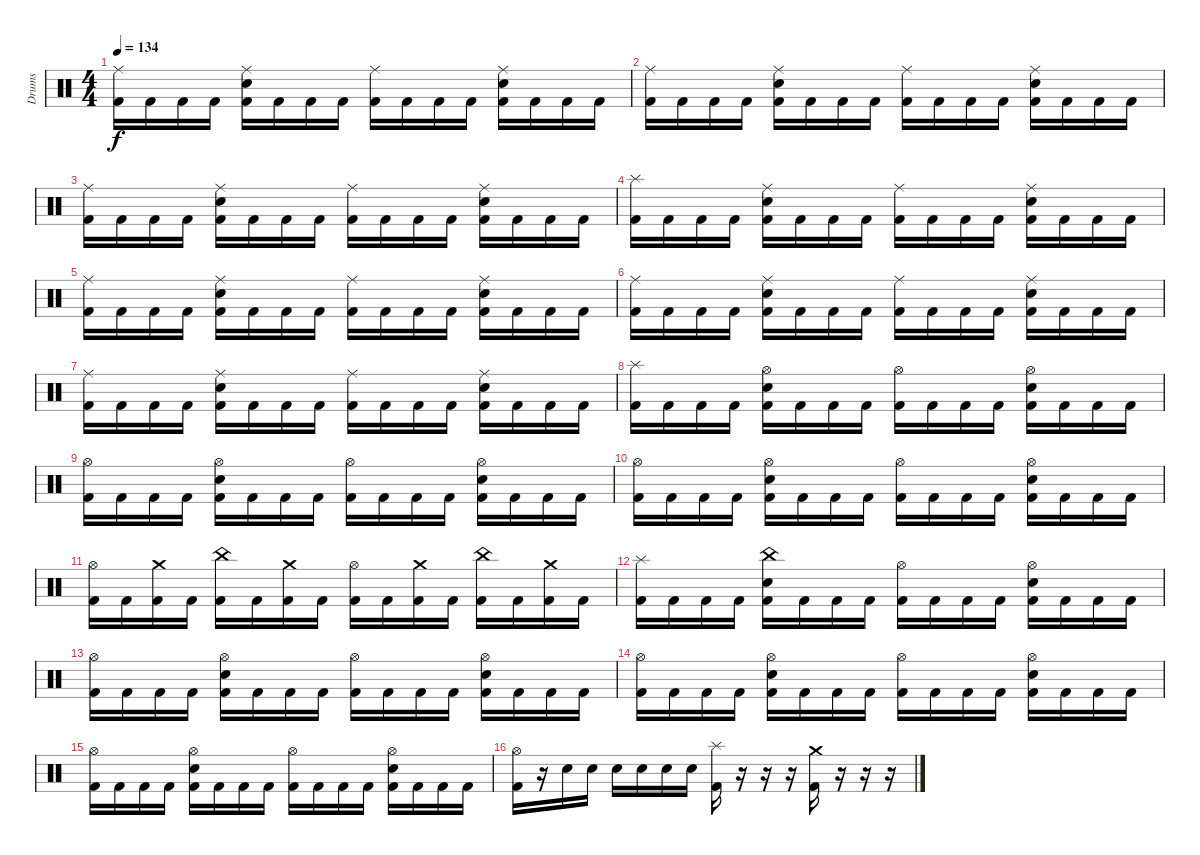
\track ("Drums" "Drums") {instrument percussion}
\staff {score}
\articulation defaults
\ts (4 4)
\tempo 134
\clef neutral
\ks c
("Ride (middle)" "Kick (hit) 2").16{dy f} "Kick (hit) 2".16 "Kick (hit) 2".16 "Kick (hit) 2".16 ("Ride (middle)" "Snare (hit) 2" "Kick (hit) 2").16 "Kick (hit) 2".16 "Kick (hit) 2".16 "Kick (hit) 2".16 ("Ride (middle)" "Kick (hit) 2").16 "Kick (hit) 2".16 "Kick (hit) 2".16 "Kick (hit) 2".16 ("Ride (middle)" "Snare (hit) 2" "Kick (hit) 2").16 "Kick (hit) 2".16 "Kick (hit) 2".16 "Kick (hit) 2".16 |
("Ride (middle)" "Kick (hit) 2").16 "Kick (hit) 2".16 "Kick (hit) 2".16 "Kick (hit) 2".16 ("Ride (middle)" "Snare (hit) 2" "Kick (hit) 2").16 "Kick (hit) 2".16 "Kick (hit) 2".16 "Kick (hit) 2".16 ("Ride (middle)" "Kick (hit) 2").16 "Kick (hit) 2".16 "Kick (hit) 2".16 "Kick (hit) 2".16 ("Ride (middle)" "Snare (hit) 2" "Kick (hit) 2").16 "Kick (hit) 2".16 "Kick (hit) 2".16 "Kick (hit) 2".16 |
("Ride (middle)" "Kick (hit) 2").16 "Kick (hit) 2".16 "Kick (hit) 2".16 "Kick (hit) 2".16 ("Ride (middle)" "Snare (hit) 2" "Kick (hit) 2").16 "Kick (hit) 2".16 "Kick (hit) 2".16 "Kick (hit) 2".16 ("Ride (middle)" "Kick (hit) 2").16 "Kick (hit) 2".16 "Kick (hit) 2".16 "Kick (hit) 2".16 ("Ride (middle)" "Snare (hit) 2" "Kick (hit) 2").16 "Kick (hit) 2".16 "Kick (hit) 2".16 "Kick (hit) 2".16 |
("Splash (hit)" "Kick (hit) 2").16 "Kick (hit) 2".16 "Kick (hit) 2".16 "Kick (hit) 2".16 ("Ride (middle)" "Snare (hit) 2" "Kick (hit) 2").16 "Kick (hit) 2".16 "Kick (hit) 2".16 "Kick (hit) 2".16 ("Ride (middle)" "Kick (hit) 2").16 "Kick (hit) 2".16 "Kick (hit) 2".16 "Kick (hit) 2".16 ("Ride (middle)" "Snare (hit) 2" "Kick (hit) 2").16 "Kick (hit) 2".16 "Kick (hit) 2".16 "Kick (hit) 2".16 |
("Ride (middle)" "Kick (hit) 2").16 "Kick (hit) 2".16 "Kick (hit) 2".16 "Kick (hit) 2".16 ("Ride (middle)" "Snare (hit) 2" "Kick (hit) 2").16 "Kick (hit) 2".16 "Kick (hit) 2".16 "Kick (hit) 2".16 ("Ride (middle)" "Kick (hit) 2").16 "Kick (hit) 2".16 "Kick (hit) 2".16 "Kick (hit) 2".16 ("Ride (middle)" "Snare (hit) 2" "Kick (hit) 2").16 "Kick (hit) 2".16 "Kick (hit) 2".16 "Kick (hit) 2".16 |
("Ride (middle)" "Kick (hit) 2").16 "Kick (hit) 2".16 "Kick (hit) 2".16 "Kick (hit) 2".16 ("Ride (middle)" "Snare (hit) 2" "Kick (hit) 2").16 "Kick (hit) 2".16 "Kick (hit) 2".16 "Kick (hit) 2".16 ("Ride (middle)" "Kick (hit) 2").16 "Kick (hit) 2".16 "Kick (hit) 2".16 "Kick (hit) 2".16 ("Ride (middle)" "Snare (hit) 2" "Kick (hit) 2").16 "Kick (hit) 2".16 "Kick (hit) 2".16 "Kick (hit) 2".16 |
("Ride (middle)" "Kick (hit) 2").16 "Kick (hit) 2".16 "Kick (hit) 2".16 "Kick (hit) 2".16 ("Ride (middle)" "Snare (hit) 2" "Kick (hit) 2").16 "Kick (hit) 2".16 "Kick (hit) 2".16 "Kick (hit) 2".16 ("Ride (middle)" "Kick (hit) 2").16 "Kick (hit) 2".16 "Kick (hit) 2".16 "Kick (hit) 2".16 ("Ride (middle)" "Snare (hit) 2" "Kick (hit) 2").16 "Kick (hit) 2".16 "Kick (hit) 2".16 "Kick (hit) 2".16 |
("Splash (hit)" "Kick (hit) 2").16 "Kick (hit) 2".16 "Kick (hit) 2".16 "Kick (hit) 2".16 ("Hi-Hat (open)" "Snare (hit) 2" "Kick (hit) 2").16 "Kick (hit) 2".16 "Kick (hit) 2".16 "Kick (hit) 2".16 ("Hi-Hat (open)" "Kick (hit) 2").16 "Kick (hit) 2".16 "Kick (hit) 2".16 "Kick (hit) 2".16 ("Hi-Hat (open)" "Snare (hit) 2" "Kick (hit) 2").16 "Kick (hit) 2".16 "Kick (hit) 2".16 "Kick (hit) 2".16 |
("Hi-Hat (open)" "Kick (hit) 2").16 "Kick (hit) 2".16 "Kick (hit) 2".16 "Kick (hit) 2".16 ("Hi-Hat (open)" "Snare (hit) 2" "Kick (hit) 2").16 "Kick (hit) 2".16 "Kick (hit) 2".16 "Kick (hit) 2".16 ("Hi-Hat (open)" "Kick (hit) 2").16 "Kick (hit) 2".16 "Kick (hit) 2".16 "Kick (hit) 2".16 ("Hi-Hat (open)" "Snare (hit) 2" "Kick (hit) 2").16 "Kick (hit) 2".16 "Kick (hit) 2".16 "Kick (hit) 2".16 |
("Hi-Hat (open)" "Kick (hit) 2").16 "Kick (hit) 2".16 "Kick (hit) 2".16 "Kick (hit) 2".16 ("Hi-Hat (open)" "Snare (hit) 2" "Kick (hit) 2").16 "Kick (hit) 2".16 "Kick (hit) 2".16 "Kick (hit) 2".16 ("Hi-Hat (open)" "Kick (hit) 2").16 "Kick (hit) 2".16 "Kick (hit) 2".16 "Kick (hit) 2".16 ("Hi-Hat (open)" "Snare (hit) 2" "Kick (hit) 2").16 "Kick (hit) 2".16 "Kick (hit) 2".16 "Kick (hit) 2".16 |
("Hi-Hat (open)" "Kick (hit) 2").16 "Kick (hit) 2".16 ("Crash medium (hit)" "Kick (hit) 2").16 "Kick (hit) 2".16 ("China (hit)" "Kick (hit) 2").16 "Kick (hit) 2".16 ("Crash medium (hit)" "Kick (hit) 2").16 "Kick (hit) 2".16 ("Hi-Hat (open)" "Kick (hit) 2").16 "Kick (hit) 2".16 ("Crash medium (hit)" "Kick (hit) 2").16 "Kick (hit) 2".16 ("China (hit)" "Kick (hit) 2").16 "Kick (hit) 2".16 ("Crash medium (hit)" "Kick (hit) 2").16 "Kick (hit) 2".16 |
("Splash (hit)" "Kick (hit) 2").16 "Kick (hit) 2".16 "Kick (hit) 2".16 "Kick (hit) 2".16 ("China (hit)" "Snare (hit) 2" "Kick (hit) 2").16 "Kick (hit) 2".16 "Kick (hit) 2".16 "Kick (hit) 2".16 ("Hi-Hat (open)" "Kick (hit) 2").16 "Kick (hit) 2".16 "Kick (hit) 2".16 "Kick (hit) 2".16 ("Hi-Hat (open)" "Snare (hit) 2" "Kick (hit) 2").16 "Kick (hit) 2".16 "Kick (hit) 2".16 "Kick (hit) 2".16 |
("Hi-Hat (open)" "Kick (hit) 2").16 "Kick (hit) 2".16 "Kick (hit) 2".16 "Kick (hit) 2".16 ("Hi-Hat (open)" "Snare (hit) 2" "Kick (hit) 2").16 "Kick (hit) 2".16 "Kick (hit) 2".16 "Kick (hit) 2".16 ("Hi-Hat (open)" "Kick (hit) 2").16 "Kick (hit) 2".16 "Kick (hit) 2".16 "Kick (hit) 2".16 ("Hi-Hat (open)" "Snare (hit) 2" "Kick (hit) 2").16 "Kick (hit) 2".16 "Kick (hit) 2".16 "Kick (hit) 2".16 |
("Hi-Hat (open)" "Kick (hit) 2").16 "Kick (hit) 2".16 "Kick (hit) 2".16 "Kick (hit) 2".16 ("Hi-Hat (open)" "Snare (hit) 2" "Kick (hit) 2").16 "Kick (hit) 2".16 "Kick (hit) 2".16 "Kick (hit) 2".16 ("Hi-Hat (open)" "Kick (hit) 2").16 "Kick (hit) 2".16 "Kick (hit) 2".16 "Kick (hit) 2".16 ("Hi-Hat (open)" "Snare (hit) 2" "Kick (hit) 2").16 "Kick (hit) 2".16 "Kick (hit) 2".16 "Kick (hit) 2".16 |
("Hi-Hat (open)" "Kick (hit) 2").16 "Kick (hit) 2".16 "Kick (hit) 2".16 "Kick (hit) 2".16 ("Hi-Hat (open)" "Snare (hit) 2" "Kick (hit) 2").16 "Kick (hit) 2".16 "Kick (hit) 2".16 "Kick (hit) 2".16 ("Hi-Hat (open)" "Kick (hit) 2").16 "Kick (hit) 2".16 "Kick (hit) 2".16 "Kick (hit) 2".16 ("Hi-Hat (open)" "Snare (hit) 2" "Kick (hit) 2").16 "Kick (hit) 2".16 "Kick (hit) 2".16 "Kick (hit) 2".16 |
("Hi-Hat (open)" "Kick (hit) 2").16 r.16 "Snare (hit) 2".16 "Snare (hit) 2".16 "Snare (hit) 2".16 "Snare (hit) 2".16 "Snare (hit) 2".16 "Snare (hit) 2".16 ("Splash (hit)" "Kick (hit) 2").16 r.16 r.16 r.16 ("Crash medium (hit)" "Kick (hit) 2").16 r.16 r.16 r.16
